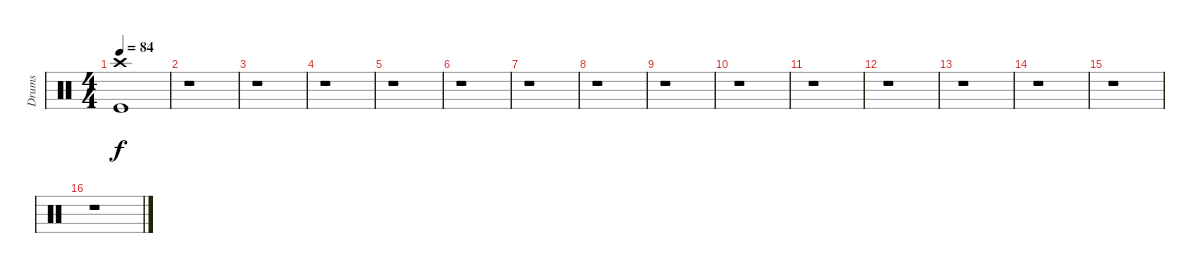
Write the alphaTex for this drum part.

\track ("Drums" "Drums") {instrument percussion}
\staff {score}
\articulation defaults
\ts (4 4)
\tempo 84
\clef neutral
\ks c
("Crash high (hit)" "Kick (hit)").1{dy f} |
r.1 |
r.1 |
r.1 |
r.1 |
r.1 |
r.1 |
r.1 |
r.1 |
r.1 |
r.1 |
r.1 |
r.1 |
r.1 |
r.1 |
r.1
